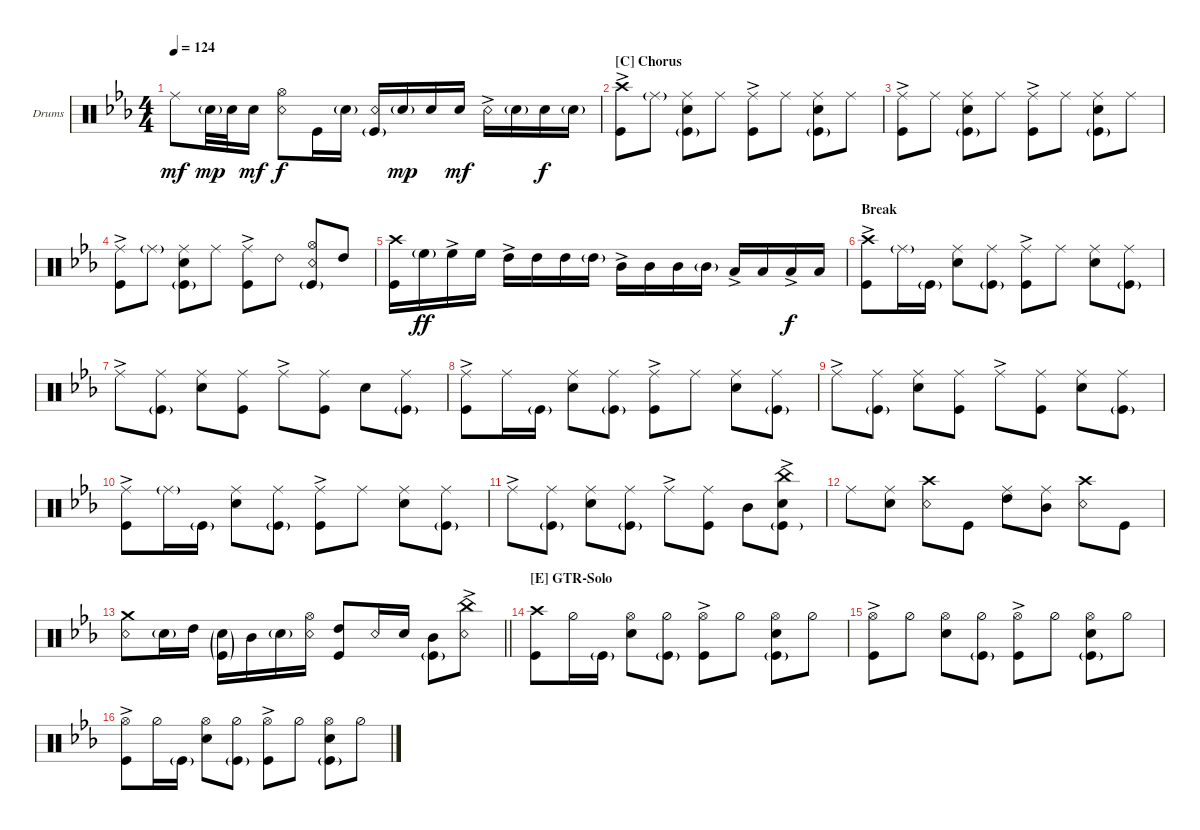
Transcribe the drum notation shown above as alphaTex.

\bracketExtendMode groupsimilarinstruments
\firstSystemTrackNameOrientation horizontal
\otherSystemsTrackNameOrientation horizontal
\track ("Drumkit" "Drums") {instrument percussion}
\staff {score}
\articulation defaults
\ts (4 4)
\tempo 124
\clef neutral
\ks cminor "Ride (middle)".8{dy mf} "Snare (hit) 2"{g}.32{dy mp} "Snare (hit) 2".32 "Snare (hit) 2".16{dy mf}
("Snare (rim shot)" "Hi-Hat (open)").8{dy f} "Kick (hit)".16 "Snare (hit) 2"{g}.16 ("Snare (rim shot)" "Kick (hit)"{g}).16 "Snare (hit) 2"{g}.16{dy mp} "Snare (hit) 2".16 "Snare (hit) 2".16{dy mf} "Snare (rim shot)"{ac}.16 "Snare (hit) 2"{g}.16 "Snare (hit) 2".16{dy f} "Snare (hit) 2"{g}.16 |
\section ("C" "Chorus")
("Kick (hit)" "Crash high (hit)"{ac}).8 "Ride (middle)"{g}.8 ("Snare (hit) 2" "Ride (middle)" "Kick (hit)"{g}).8 "Ride (middle)".8 ("Kick (hit)" "Ride (middle)"{ac}).8 "Ride (middle)".8 ("Snare (hit) 2" "Ride (middle)" "Kick (hit)"{g}).8 "Ride (middle)".8 |
("Kick (hit)" "Ride (middle)"{ac}).8 "Ride (middle)".8 ("Snare (hit) 2" "Ride (middle)" "Kick (hit)"{g}).8 "Ride (middle)".8 ("Kick (hit)" "Ride (middle)"{ac}).8 "Ride (middle)".8 ("Snare (hit) 2" "Ride (middle)" "Kick (hit)"{g}).8 "Ride (middle)".8 |
("Kick (hit)" "Ride (middle)"{ac}).8 "Ride (middle)"{g}.8 ("Snare (hit) 2" "Ride (middle)" "Kick (hit)"{g}).8 "Ride (middle)".8 ("Kick (hit)" "Ride (middle)"{ac}).8 "Ride (bell) 2".8 ("Snare (rim shot)" "Kick (hit)"{g} "Hi-Hat (open)").8 "High Tom (hit)".8 |
("Kick (hit)" "Crash high (hit)").16 "High Floor Tom (hit)"{g}.16{dy ff} "High Floor Tom (hit)"{ac}.16 "High Floor Tom (hit)".16 "High Tom (hit)"{ac}.16 "High Tom (hit)".16 "High Tom (hit)".16 "High Tom (hit)"{g}.16 "Mid Tom (hit)"{ac}.16 "Mid Tom (hit)".16 "Mid Tom (hit)".16 "Mid Tom (hit)"{g}.16 "Low Tom (hit)"{ac}.16 "Low Tom (hit)".16 "Low Tom (hit)"{ac}.16{dy f} "Low Tom (hit)".16 |
\section ("" "Break")
("Kick (hit)" "Crash high (hit)"{ac}).8 "Ride (middle)"{g}.16 "Kick (hit)"{g}.16 ("Snare (hit) 2" "Ride (middle)").8 ("Ride (middle)" "Kick (hit)"{g}).8 ("Kick (hit)" "Ride (middle)"{ac}).8 "Ride (middle)".8 ("Snare (hit) 2" "Ride (middle)").8 ("Ride (middle)" "Kick (hit)"{g}).8 |
"Ride (middle)"{ac}.8 ("Ride (middle)" "Kick (hit)"{g}).8 ("Snare (hit) 2" "Ride (middle)").8 ("Ride (middle)" "Kick (hit)").8 "Ride (middle)"{ac}.8 ("Ride (middle)" "Kick (hit)").8 "Snare (hit) 2".8 ("Ride (middle)" "Kick (hit)"{g}).8 |
("Kick (hit)" "Ride (middle)"{ac}).8 "Ride (middle)".16 "Kick (hit)"{g}.16 ("Snare (hit) 2" "Ride (middle)").8 ("Ride (middle)" "Kick (hit)"{g}).8 ("Kick (hit)" "Ride (middle)"{ac}).8 "Ride (middle)".8 ("Snare (hit) 2" "Ride (middle)").8 ("Ride (middle)" "Kick (hit)"{g}).8 |
"Ride (middle)"{ac}.8 ("Ride (middle)" "Kick (hit)"{g}).8 ("Snare (hit) 2" "Ride (middle)").8 ("Ride (middle)" "Kick (hit)").8 "Ride (middle)"{ac}.8 ("Ride (middle)" "Kick (hit)").8 ("Snare (hit) 2" "Ride (middle)").8 ("Ride (middle)" "Kick (hit)"{g}).8 |
("Kick (hit)" "Ride (middle)"{ac}).8 "Ride (middle)"{g}.16 "Kick (hit)"{g}.16 ("Snare (hit) 2" "Ride (middle)").8 ("Ride (middle)" "Kick (hit)"{g}).8 ("Kick (hit)" "Ride (middle)"{ac}).8 "Ride (middle)".8 ("Snare (hit) 2" "Ride (middle)").8 ("Ride (middle)" "Kick (hit)"{g}).8 |
"Ride (middle)"{ac}.8 ("Ride (middle)" "Kick (hit)"{g}).8 ("Snare (hit) 2" "Ride (middle)").8 ("Ride (middle)" "Kick (hit)"{g}).8 "Ride (middle)"{ac}.8 ("Ride (middle)" "Kick (hit)").8 "Mid Tom (hit)".8 ("Snare (hit) 2" "China (hit)"{ac} "Kick (hit)"{g}).8 |
"Ride (middle)".8 ("Snare (hit) 2" "Ride (middle)").8 ("Snare (rim shot)" "Crash high (hit)").8 "Kick (hit)".8 ("High Tom (hit)" "Ride (middle)").8 ("Ride (middle)" "Mid Tom (hit)").8 ("Snare (rim shot)" "Crash high (hit)").8 "Kick (hit)".8 |
\barLineRight lightlight
("Snare (rim shot)" "Crash medium (hit)").8 "Snare (hit) 2"{g}.16 "High Tom (hit)".16 ("Snare (hit) 2"{g} "Kick (hit)"{g}).16 "Mid Tom (hit)".16 "Snare (hit) 2"{g}.16 ("Snare (rim shot)" "Hi-Hat (open)").16 ("Kick (hit)" "High Tom (hit)").8 "Snare (rim shot)".16 "Snare (hit) 2".16 ("Mid Tom (hit)" "Kick (hit)"{g}).8 ("Snare (rim shot)" "China (hit)"{ac}).8 |
\section ("E" "GTR-Solo")
("Kick (hit)" "Crash high (hit)").8 "Hi-Hat (half)".16 "Kick (hit)"{g}.16 ("Snare (hit) 2" "Hi-Hat (open)").8 ("Hi-Hat (half)" "Kick (hit)"{g}).8 ("Kick (hit)" "Hi-Hat (open)"{ac}).8 "Hi-Hat (half)".8 ("Snare (hit) 2" "Kick (hit)"{g} "Hi-Hat (open)").8 "Hi-Hat (half)".8 |
("Kick (hit)" "Hi-Hat (open)"{ac}).8 "Hi-Hat (half)".8 ("Snare (hit) 2" "Hi-Hat (open)").8 ("Kick (hit)"{g} "Hi-Hat (half)").8 ("Kick (hit)" "Hi-Hat (open)"{ac}).8 "Hi-Hat (half)".8 ("Snare (hit) 2" "Kick (hit)"{g} "Hi-Hat (open)").8 "Hi-Hat (half)".8 |
("Kick (hit)" "Hi-Hat (open)"{ac}).8 "Hi-Hat (half)".16 "Kick (hit)"{g}.16 ("Snare (hit) 2" "Hi-Hat (open)").8 ("Hi-Hat (half)" "Kick (hit)"{g}).8 ("Kick (hit)" "Hi-Hat (open)"{ac}).8 "Hi-Hat (half)".8 ("Snare (hit) 2" "Kick (hit)"{g} "Hi-Hat (open)").8 "Hi-Hat (half)".8
